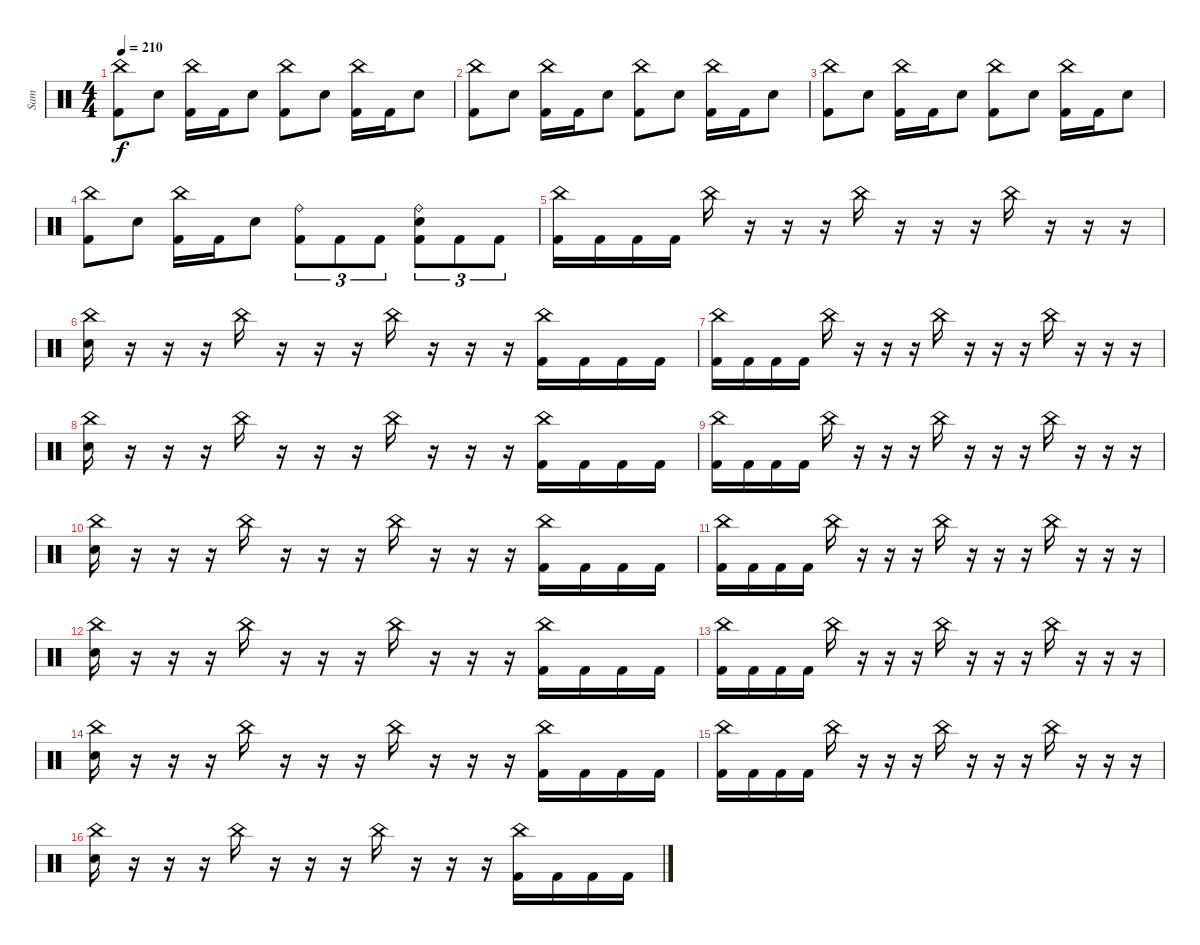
\track ("Sam" "Sam") {instrument percussion}
\staff {score}
\articulation defaults
\ts (4 4)
\tempo 210
\clef neutral
\ks c
("China (hit)" "Kick (hit) 2").8{dy f} "Snare (hit) 2".8 ("China (hit)" "Kick (hit) 2").16 "Kick (hit) 2".16 "Snare (hit) 2".8 ("China (hit)" "Kick (hit) 2").8 "Snare (hit) 2".8 ("China (hit)" "Kick (hit) 2").16 "Kick (hit) 2".16 "Snare (hit) 2".8 |
("China (hit)" "Kick (hit) 2").8 "Snare (hit) 2".8 ("China (hit)" "Kick (hit) 2").16 "Kick (hit) 2".16 "Snare (hit) 2".8 ("China (hit)" "Kick (hit) 2").8 "Snare (hit) 2".8 ("China (hit)" "Kick (hit) 2").16 "Kick (hit) 2".16 "Snare (hit) 2".8 |
("China (hit)" "Kick (hit) 2").8 "Snare (hit) 2".8 ("China (hit)" "Kick (hit) 2").16 "Kick (hit) 2".16 "Snare (hit) 2".8 ("China (hit)" "Kick (hit) 2").8 "Snare (hit) 2".8 ("China (hit)" "Kick (hit) 2").16 "Kick (hit) 2".16 "Snare (hit) 2".8 |
("China (hit)" "Kick (hit) 2").8 "Snare (hit) 2".8 ("China (hit)" "Kick (hit) 2").16 "Kick (hit) 2".16 "Snare (hit) 2".8 ("Ride (bell)" "Kick (hit) 2").8{tu (3 2)} "Kick (hit) 2".8{tu (3 2)} "Kick (hit) 2".8{tu (3 2)} ("Ride (bell)" "Snare (hit) 2" "Kick (hit) 2").8{tu (3 2)} "Kick (hit) 2".8{tu (3 2)} "Kick (hit) 2".8{tu (3 2)} |
("China (hit)" "Kick (hit) 2").16 "Kick (hit) 2".16 "Kick (hit) 2".16 "Kick (hit) 2".16 "China (hit)".16 r.16 r.16 r.16 "China (hit)".16 r.16 r.16 r.16 "China (hit)".16 r.16 r.16 r.16 |
("China (hit)" "Snare (hit) 2").16 r.16 r.16 r.16 "China (hit)".16 r.16 r.16 r.16 "China (hit)".16 r.16 r.16 r.16 ("China (hit)" "Kick (hit) 2").16 "Kick (hit) 2".16 "Kick (hit) 2".16 "Kick (hit) 2".16 |
("China (hit)" "Kick (hit) 2").16 "Kick (hit) 2".16 "Kick (hit) 2".16 "Kick (hit) 2".16 "China (hit)".16 r.16 r.16 r.16 "China (hit)".16 r.16 r.16 r.16 "China (hit)".16 r.16 r.16 r.16 |
("China (hit)" "Snare (hit) 2").16 r.16 r.16 r.16 "China (hit)".16 r.16 r.16 r.16 "China (hit)".16 r.16 r.16 r.16 ("China (hit)" "Kick (hit) 2").16 "Kick (hit) 2".16 "Kick (hit) 2".16 "Kick (hit) 2".16 |
("China (hit)" "Kick (hit) 2").16 "Kick (hit) 2".16 "Kick (hit) 2".16 "Kick (hit) 2".16 "China (hit)".16 r.16 r.16 r.16 "China (hit)".16 r.16 r.16 r.16 "China (hit)".16 r.16 r.16 r.16 |
("China (hit)" "Snare (hit) 2").16 r.16 r.16 r.16 "China (hit)".16 r.16 r.16 r.16 "China (hit)".16 r.16 r.16 r.16 ("China (hit)" "Kick (hit) 2").16 "Kick (hit) 2".16 "Kick (hit) 2".16 "Kick (hit) 2".16 |
("China (hit)" "Kick (hit) 2").16 "Kick (hit) 2".16 "Kick (hit) 2".16 "Kick (hit) 2".16 "China (hit)".16 r.16 r.16 r.16 "China (hit)".16 r.16 r.16 r.16 "China (hit)".16 r.16 r.16 r.16 |
("China (hit)" "Snare (hit) 2").16 r.16 r.16 r.16 "China (hit)".16 r.16 r.16 r.16 "China (hit)".16 r.16 r.16 r.16 ("China (hit)" "Kick (hit) 2").16 "Kick (hit) 2".16 "Kick (hit) 2".16 "Kick (hit) 2".16 |
("China (hit)" "Kick (hit) 2").16 "Kick (hit) 2".16 "Kick (hit) 2".16 "Kick (hit) 2".16 "China (hit)".16 r.16 r.16 r.16 "China (hit)".16 r.16 r.16 r.16 "China (hit)".16 r.16 r.16 r.16 |
("China (hit)" "Snare (hit) 2").16 r.16 r.16 r.16 "China (hit)".16 r.16 r.16 r.16 "China (hit)".16 r.16 r.16 r.16 ("China (hit)" "Kick (hit) 2").16 "Kick (hit) 2".16 "Kick (hit) 2".16 "Kick (hit) 2".16 |
("China (hit)" "Kick (hit) 2").16 "Kick (hit) 2".16 "Kick (hit) 2".16 "Kick (hit) 2".16 "China (hit)".16 r.16 r.16 r.16 "China (hit)".16 r.16 r.16 r.16 "China (hit)".16 r.16 r.16 r.16 |
("China (hit)" "Snare (hit) 2").16 r.16 r.16 r.16 "China (hit)".16 r.16 r.16 r.16 "China (hit)".16 r.16 r.16 r.16 ("China (hit)" "Kick (hit) 2").16 "Kick (hit) 2".16 "Kick (hit) 2".16 "Kick (hit) 2".16
